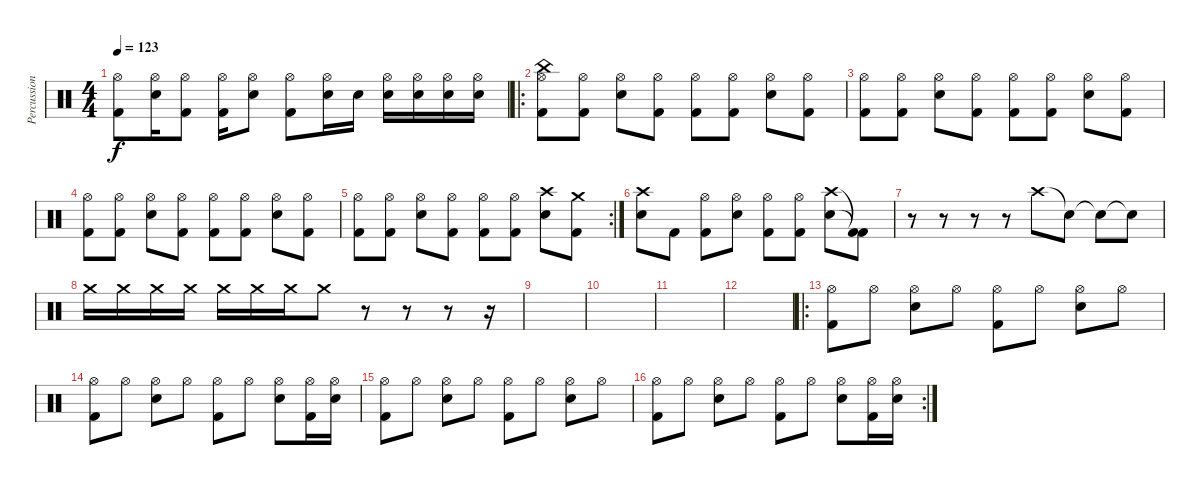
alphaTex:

\track ("Percussion" "Percussion") {instrument percussion}
\staff {score}
\articulation defaults
\ts (4 4)
\tempo 123
\clef neutral
\ks c
("Hi-Hat (open)" "Kick (hit) 2").8{dy f} ("Hi-Hat (open)" "Electric Snare (hit)").16 ("Hi-Hat (open)" "Kick (hit) 2").8 ("Hi-Hat (open)" "Kick (hit) 2").16 ("Hi-Hat (open)" "Electric Snare (hit)").8 ("Hi-Hat (open)" "Kick (hit) 2").8 ("Hi-Hat (open)" "Electric Snare (hit)").16 "Electric Snare (hit)".16 ("Hi-Hat (open)" "Electric Snare (hit)").16 ("Hi-Hat (open)" "Electric Snare (hit)").16 ("Hi-Hat (open)" "Electric Snare (hit)").16 ("Hi-Hat (open)" "Electric Snare (hit)").16 |
\ro
("Hi-Hat (open)" "China (hit)" "Kick (hit) 2").8 ("Hi-Hat (open)" "Kick (hit) 2").8 ("Hi-Hat (open)" "Electric Snare (hit)").8 ("Hi-Hat (open)" "Kick (hit) 2").8 ("Hi-Hat (open)" "Kick (hit) 2").8 ("Hi-Hat (open)" "Kick (hit) 2").8 ("Hi-Hat (open)" "Electric Snare (hit)").8 ("Hi-Hat (open)" "Kick (hit) 2").8 |
("Hi-Hat (open)" "Kick (hit) 2").8 ("Hi-Hat (open)" "Kick (hit) 2").8 ("Hi-Hat (open)" "Electric Snare (hit)").8 ("Hi-Hat (open)" "Kick (hit) 2").8 ("Hi-Hat (open)" "Kick (hit) 2").8 ("Hi-Hat (open)" "Kick (hit) 2").8 ("Hi-Hat (open)" "Electric Snare (hit)").8 ("Hi-Hat (open)" "Kick (hit) 2").8 |
("Hi-Hat (open)" "Kick (hit) 2").8 ("Hi-Hat (open)" "Kick (hit) 2").8 ("Hi-Hat (open)" "Electric Snare (hit)").8 ("Hi-Hat (open)" "Kick (hit) 2").8 ("Hi-Hat (open)" "Kick (hit) 2").8 ("Hi-Hat (open)" "Kick (hit) 2").8 ("Hi-Hat (open)" "Electric Snare (hit)").8 ("Hi-Hat (open)" "Kick (hit) 2").8 |
\rc 2
("Hi-Hat (open)" "Kick (hit) 2").8 ("Hi-Hat (open)" "Kick (hit) 2").8 ("Hi-Hat (open)" "Electric Snare (hit)").8 ("Hi-Hat (open)" "Kick (hit) 2").8 ("Hi-Hat (open)" "Kick (hit) 2").8 ("Hi-Hat (open)" "Kick (hit) 2").8 ("Crash high (hit)" "Electric Snare (hit)").8 ("Crash medium (hit)" "Kick (hit) 2").8 |
("Crash high (hit)" "Electric Snare (hit)").8 "Kick (hit) 2".8 ("Hi-Hat (open)" "Kick (hit) 2").8 ("Hi-Hat (open)" "Electric Snare (hit)").8 ("Hi-Hat (open)" "Kick (hit) 2").8 ("Hi-Hat (open)" "Kick (hit) 2").8 ("Crash high (hit)" "Electric Snare (hit)").8 ("Kick (hit) 2"{t} "Kick (hit) 2"{t}).8 |
r.8 r.8 r.8 r.8 "Crash high (hit)".8 "Snare (hit)"{t}.8 "Snare (hit)"{t}.8 "Snare (hit)"{t}.8 |
"Crash medium (hit)".16 "Crash medium (hit)".16 "Crash medium (hit)".16 "Crash medium (hit)".16 "Crash medium (hit)".16 "Crash medium (hit)".16 "Crash medium (hit)".16 "Crash medium (hit)".8 r.8 r.8 r.8 r.16 |
|
|
|
|
\ro
("Hi-Hat (open)" "Kick (hit) 2").8 "Hi-Hat (open)".8 ("Hi-Hat (open)" "Electric Snare (hit)").8 "Hi-Hat (open)".8 ("Hi-Hat (open)" "Kick (hit) 2").8 "Hi-Hat (open)".8 ("Hi-Hat (open)" "Electric Snare (hit)").8 "Hi-Hat (open)".8 |
("Hi-Hat (open)" "Kick (hit) 2").8 "Hi-Hat (open)".8 ("Hi-Hat (open)" "Electric Snare (hit)").8 "Hi-Hat (open)".8 ("Hi-Hat (open)" "Kick (hit) 2").8 "Hi-Hat (open)".8 ("Hi-Hat (open)" "Electric Snare (hit)").8 ("Hi-Hat (open)" "Kick (hit) 2").16 ("Hi-Hat (open)" "Electric Snare (hit)").16 |
("Hi-Hat (open)" "Kick (hit) 2").8 "Hi-Hat (open)".8 ("Hi-Hat (open)" "Electric Snare (hit)").8 "Hi-Hat (open)".8 ("Hi-Hat (open)" "Kick (hit) 2").8 "Hi-Hat (open)".8 ("Hi-Hat (open)" "Electric Snare (hit)").8 "Hi-Hat (open)".8 |
\rc 2
("Hi-Hat (open)" "Kick (hit) 2").8 "Hi-Hat (open)".8 ("Hi-Hat (open)" "Electric Snare (hit)").8 "Hi-Hat (open)".8 ("Hi-Hat (open)" "Kick (hit) 2").8 "Hi-Hat (open)".8 ("Hi-Hat (open)" "Electric Snare (hit)").8 ("Hi-Hat (open)" "Kick (hit) 2").16 ("Hi-Hat (open)" "Electric Snare (hit)").16
